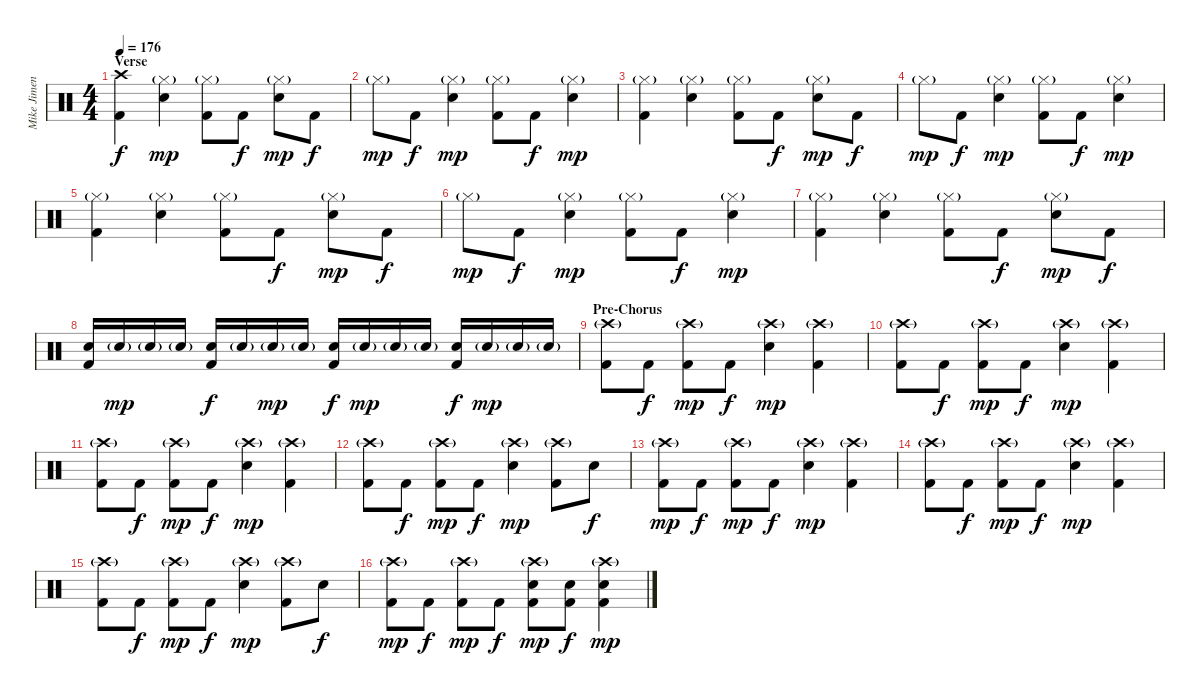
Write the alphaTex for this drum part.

\track ("Mike Jimenez" "Mike Jimen") {instrument percussion}
\staff {score}
\articulation defaults
\ts (4 4)
\section ("" "Verse")
\tempo 176
\clef neutral
\ks c
("Crash high (hit)" "Kick (hit) 2").4{dy f} ("Hi-Hat (closed)"{g} "Electric Snare (hit)").4{dy mp} ("Hi-Hat (closed)"{g} "Kick (hit) 2").8 "Kick (hit) 2".8{dy f} ("Hi-Hat (closed)"{g} "Electric Snare (hit)").8{dy mp} "Kick (hit) 2".8{dy f} |
"Hi-Hat (closed)"{g}.8{dy mp} "Kick (hit) 2".8{dy f} ("Hi-Hat (closed)"{g} "Electric Snare (hit)").4{dy mp} ("Hi-Hat (closed)"{g} "Kick (hit) 2").8 "Kick (hit) 2".8{dy f} ("Hi-Hat (closed)"{g} "Electric Snare (hit)").4{dy mp} |
("Hi-Hat (closed)"{g} "Kick (hit) 2").4 ("Hi-Hat (closed)"{g} "Electric Snare (hit)").4 ("Hi-Hat (closed)"{g} "Kick (hit) 2").8 "Kick (hit) 2".8{dy f} ("Hi-Hat (closed)"{g} "Electric Snare (hit)").8{dy mp} "Kick (hit) 2".8{dy f} |
"Hi-Hat (closed)"{g}.8{dy mp} "Kick (hit) 2".8{dy f} ("Hi-Hat (closed)"{g} "Electric Snare (hit)").4{dy mp} ("Hi-Hat (closed)"{g} "Kick (hit) 2").8 "Kick (hit) 2".8{dy f} ("Hi-Hat (closed)"{g} "Electric Snare (hit)").4{dy mp} |
("Hi-Hat (closed)"{g} "Kick (hit) 2").4 ("Hi-Hat (closed)"{g} "Electric Snare (hit)").4 ("Hi-Hat (closed)"{g} "Kick (hit) 2").8 "Kick (hit) 2".8{dy f} ("Hi-Hat (closed)"{g} "Electric Snare (hit)").8{dy mp} "Kick (hit) 2".8{dy f} |
"Hi-Hat (closed)"{g}.8{dy mp} "Kick (hit) 2".8{dy f} ("Hi-Hat (closed)"{g} "Electric Snare (hit)").4{dy mp} ("Hi-Hat (closed)"{g} "Kick (hit) 2").8 "Kick (hit) 2".8{dy f} ("Hi-Hat (closed)"{g} "Electric Snare (hit)").4{dy mp} |
("Hi-Hat (closed)"{g} "Kick (hit) 2").4 ("Hi-Hat (closed)"{g} "Electric Snare (hit)").4 ("Hi-Hat (closed)"{g} "Kick (hit) 2").8 "Kick (hit) 2".8{dy f} ("Hi-Hat (closed)"{g} "Electric Snare (hit)").8{dy mp} "Kick (hit) 2".8{dy f} |
("Electric Snare (hit)" "Kick (hit) 2").16 "Electric Snare (hit)"{g}.16{dy mp} "Electric Snare (hit)"{g}.16 "Electric Snare (hit)"{g}.16 ("Electric Snare (hit)" "Kick (hit) 2").16{dy f} "Electric Snare (hit)"{g}.16 "Electric Snare (hit)"{g}.16{dy mp} "Electric Snare (hit)"{g}.16 ("Electric Snare (hit)" "Kick (hit) 2").16{dy f} "Electric Snare (hit)"{g}.16{dy mp} "Electric Snare (hit)"{g}.16 "Electric Snare (hit)"{g}.16 ("Electric Snare (hit)" "Kick (hit) 2").16{dy f} "Electric Snare (hit)"{g}.16{dy mp} "Electric Snare (hit)"{g}.16 "Electric Snare (hit)"{g}.16 |
\section ("" "Pre-Chorus")
("Crash high (hit)"{g} "Kick (hit) 2").8 "Kick (hit) 2".8{dy f} ("Crash high (hit)"{g} "Kick (hit) 2").8{dy mp} "Kick (hit) 2".8{dy f} ("Crash high (hit)"{g} "Electric Snare (hit)").4{dy mp} ("Crash high (hit)"{g} "Kick (hit) 2").4 |
("Crash high (hit)"{g} "Kick (hit) 2").8 "Kick (hit) 2".8{dy f} ("Crash high (hit)"{g} "Kick (hit) 2").8{dy mp} "Kick (hit) 2".8{dy f} ("Crash high (hit)"{g} "Electric Snare (hit)").4{dy mp} ("Crash high (hit)"{g} "Kick (hit) 2").4 |
("Crash high (hit)"{g} "Kick (hit) 2").8 "Kick (hit) 2".8{dy f} ("Crash high (hit)"{g} "Kick (hit) 2").8{dy mp} "Kick (hit) 2".8{dy f} ("Crash high (hit)"{g} "Electric Snare (hit)").4{dy mp} ("Crash high (hit)"{g} "Kick (hit) 2").4 |
("Crash high (hit)"{g} "Kick (hit) 2").8 "Kick (hit) 2".8{dy f} ("Crash high (hit)"{g} "Kick (hit) 2").8{dy mp} "Kick (hit) 2".8{dy f} ("Crash high (hit)"{g} "Electric Snare (hit)").4{dy mp} ("Crash high (hit)"{g} "Kick (hit) 2").8 "Electric Snare (hit)".8{dy f} |
("Crash high (hit)"{g} "Kick (hit) 2").8{dy mp} "Kick (hit) 2".8{dy f} ("Crash high (hit)"{g} "Kick (hit) 2").8{dy mp} "Kick (hit) 2".8{dy f} ("Crash high (hit)"{g} "Electric Snare (hit)").4{dy mp} ("Crash high (hit)"{g} "Kick (hit) 2").4 |
("Crash high (hit)"{g} "Kick (hit) 2").8 "Kick (hit) 2".8{dy f} ("Crash high (hit)"{g} "Kick (hit) 2").8{dy mp} "Kick (hit) 2".8{dy f} ("Crash high (hit)"{g} "Electric Snare (hit)").4{dy mp} ("Crash high (hit)"{g} "Kick (hit) 2").4 |
("Crash high (hit)"{g} "Kick (hit) 2").8 "Kick (hit) 2".8{dy f} ("Crash high (hit)"{g} "Kick (hit) 2").8{dy mp} "Kick (hit) 2".8{dy f} ("Crash high (hit)"{g} "Electric Snare (hit)").4{dy mp} ("Crash high (hit)"{g} "Kick (hit) 2").8 "Electric Snare (hit)".8{dy f} |
("Crash high (hit)"{g} "Kick (hit) 2").8{dy mp} "Kick (hit) 2".8{dy f} ("Crash high (hit)"{g} "Kick (hit) 2").8{dy mp} "Kick (hit) 2".8{dy f} ("Crash high (hit)"{g} "Electric Snare (hit)" "Kick (hit) 2").8{dy mp} ("Electric Snare (hit)" "Kick (hit) 2").8{dy f} ("Crash high (hit)"{g} "Electric Snare (hit)" "Kick (hit) 2").4{dy mp}
